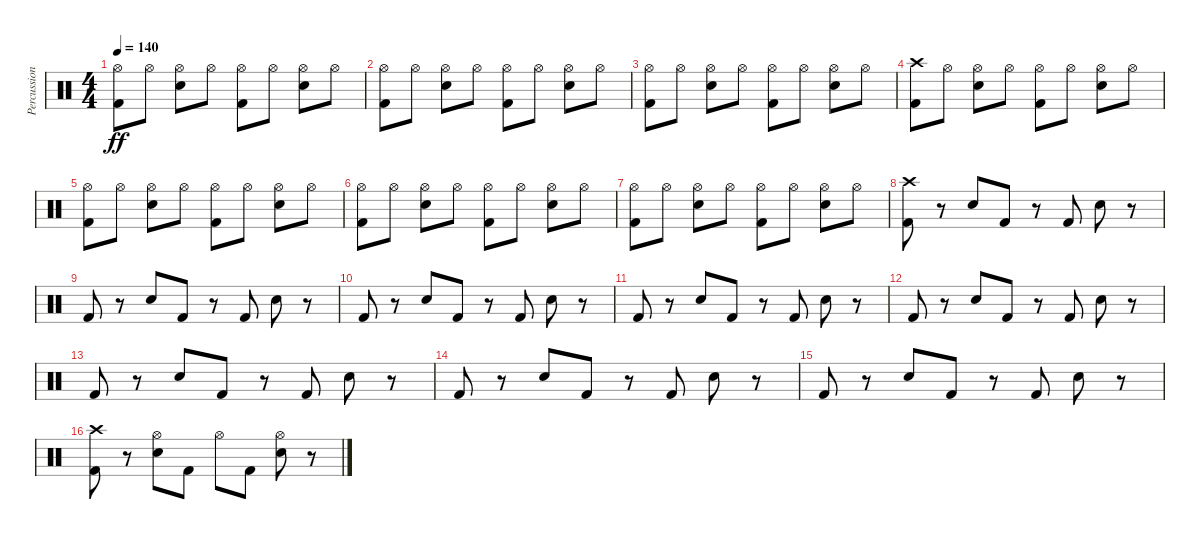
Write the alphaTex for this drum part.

\track ("Percussion" "Percussion") {instrument percussion}
\staff {score}
\articulation defaults
\ts (4 4)
\tempo 140
\clef neutral
\ks c
("Hi-Hat (open)" "Kick (hit) 2").8{dy ff} "Hi-Hat (open)".8 ("Hi-Hat (open)" "Snare (hit) 2").8 "Hi-Hat (open)".8 ("Hi-Hat (open)" "Kick (hit) 2").8 "Hi-Hat (open)".8 ("Hi-Hat (open)" "Snare (hit) 2").8 "Hi-Hat (open)".8 |
("Hi-Hat (open)" "Kick (hit) 2").8 "Hi-Hat (open)".8 ("Hi-Hat (open)" "Snare (hit) 2").8 "Hi-Hat (open)".8 ("Hi-Hat (open)" "Kick (hit) 2").8 "Hi-Hat (open)".8 ("Hi-Hat (open)" "Snare (hit) 2").8 "Hi-Hat (open)".8 |
("Hi-Hat (open)" "Kick (hit) 2").8 "Hi-Hat (open)".8 ("Hi-Hat (open)" "Snare (hit) 2").8 "Hi-Hat (open)".8 ("Hi-Hat (open)" "Kick (hit) 2").8 "Hi-Hat (open)".8 ("Hi-Hat (open)" "Snare (hit) 2").8 "Hi-Hat (open)".8 |
("Crash high (hit)" "Kick (hit) 2").8 "Hi-Hat (open)".8 ("Hi-Hat (open)" "Snare (hit) 2").8 "Hi-Hat (open)".8 ("Hi-Hat (open)" "Kick (hit) 2").8 "Hi-Hat (open)".8 ("Hi-Hat (open)" "Snare (hit) 2").8 "Hi-Hat (open)".8 |
("Hi-Hat (open)" "Kick (hit) 2").8 "Hi-Hat (open)".8 ("Hi-Hat (open)" "Snare (hit) 2").8 "Hi-Hat (open)".8 ("Hi-Hat (open)" "Kick (hit) 2").8 "Hi-Hat (open)".8 ("Hi-Hat (open)" "Snare (hit) 2").8 "Hi-Hat (open)".8 |
("Hi-Hat (open)" "Kick (hit) 2").8 "Hi-Hat (open)".8 ("Hi-Hat (open)" "Snare (hit) 2").8 "Hi-Hat (open)".8 ("Hi-Hat (open)" "Kick (hit) 2").8 "Hi-Hat (open)".8 ("Hi-Hat (open)" "Snare (hit) 2").8 "Hi-Hat (open)".8 |
("Hi-Hat (open)" "Kick (hit) 2").8 "Hi-Hat (open)".8 ("Hi-Hat (open)" "Snare (hit) 2").8 "Hi-Hat (open)".8 ("Hi-Hat (open)" "Kick (hit) 2").8 "Hi-Hat (open)".8 ("Hi-Hat (open)" "Snare (hit) 2").8 "Hi-Hat (open)".8 |
("Crash high (hit)" "Kick (hit) 2").8 r.8 "Electric Snare (hit)".8 "Kick (hit) 2".8 r.8 "Kick (hit) 2".8 "Electric Snare (hit)".8 r.8 |
"Kick (hit) 2".8 r.8 "Electric Snare (hit)".8 "Kick (hit) 2".8 r.8 "Kick (hit) 2".8 "Electric Snare (hit)".8 r.8 |
"Kick (hit) 2".8 r.8 "Electric Snare (hit)".8 "Kick (hit) 2".8 r.8 "Kick (hit) 2".8 "Electric Snare (hit)".8 r.8 |
"Kick (hit) 2".8 r.8 "Electric Snare (hit)".8 "Kick (hit) 2".8 r.8 "Kick (hit) 2".8 "Electric Snare (hit)".8 r.8 |
"Kick (hit) 2".8 r.8 "Electric Snare (hit)".8 "Kick (hit) 2".8 r.8 "Kick (hit) 2".8 "Electric Snare (hit)".8 r.8 |
"Kick (hit) 2".8 r.8 "Electric Snare (hit)".8 "Kick (hit) 2".8 r.8 "Kick (hit) 2".8 "Electric Snare (hit)".8 r.8 |
"Kick (hit) 2".8 r.8 "Electric Snare (hit)".8 "Kick (hit) 2".8 r.8 "Kick (hit) 2".8 "Electric Snare (hit)".8 r.8 |
"Kick (hit) 2".8 r.8 "Electric Snare (hit)".8 "Kick (hit) 2".8 r.8 "Kick (hit) 2".8 "Electric Snare (hit)".8 r.8 |
("Crash high (hit)" "Kick (hit) 2").8 r.8 ("Hi-Hat (open)" "Electric Snare (hit)").8 "Kick (hit) 2".8 "Hi-Hat (open)".8 "Kick (hit) 2".8 ("Hi-Hat (open)" "Electric Snare (hit)").8 r.8
